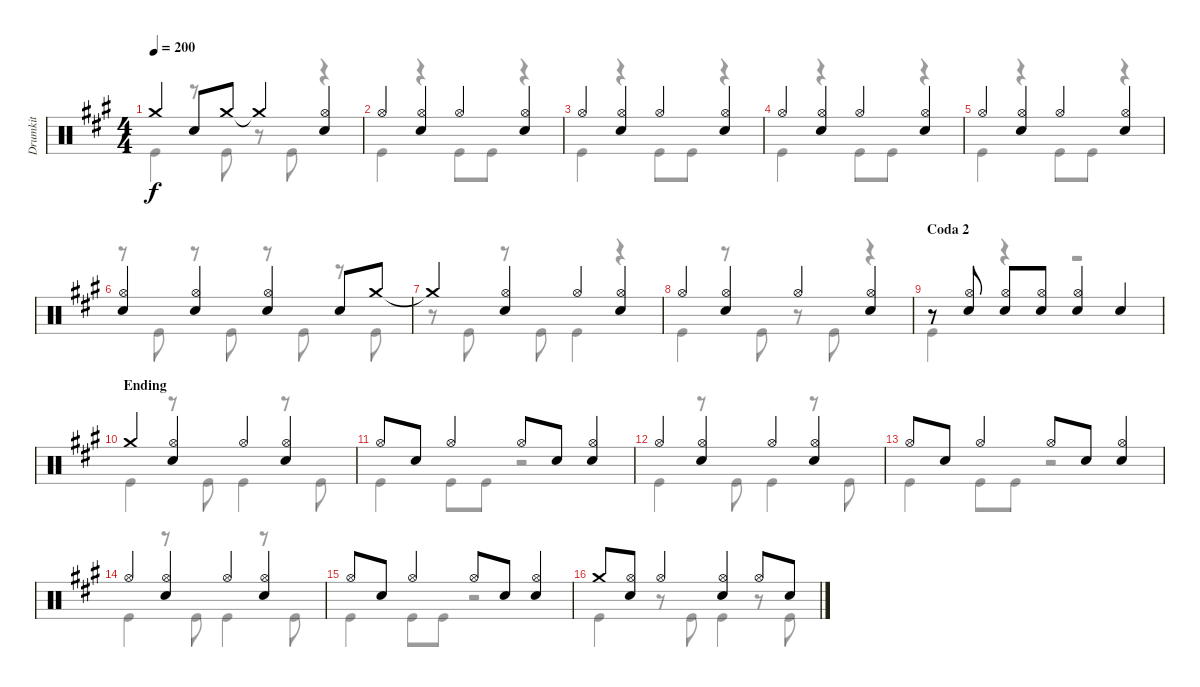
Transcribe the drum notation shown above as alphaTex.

\track ("Drumkit" "Drumkit") {instrument percussion}
\staff {score}
\articulation defaults
\voice
\ts (4 4)
\tempo 200
\clef neutral
\ks a "Crash medium (hit)".4{dy f} "Snare (hit) 2".8 "Crash medium (hit)".8 "Crash medium (hit)"{t}.4
("Hi-Hat (open)" "Snare (hit) 2").4 |
"Hi-Hat (open)".4 ("Hi-Hat (open)" "Snare (hit) 2").4 "Hi-Hat (open)".4 ("Hi-Hat (open)" "Snare (hit) 2").4 |
"Hi-Hat (open)".4 ("Hi-Hat (open)" "Snare (hit) 2").4 "Hi-Hat (open)".4 ("Hi-Hat (open)" "Snare (hit) 2").4 |
"Hi-Hat (open)".4 ("Hi-Hat (open)" "Snare (hit) 2").4 "Hi-Hat (open)".4 ("Hi-Hat (open)" "Snare (hit) 2").4 |
"Hi-Hat (open)".4 ("Hi-Hat (open)" "Snare (hit) 2").4 "Hi-Hat (open)".4 ("Hi-Hat (open)" "Snare (hit) 2").4 |
("Hi-Hat (open)" "Snare (hit) 2").4 ("Hi-Hat (open)" "Snare (hit) 2").4 ("Hi-Hat (open)" "Snare (hit) 2").4 "Snare (hit) 2".8 "Crash medium (hit)".8 |
"Crash medium (hit)"{t}.4 ("Hi-Hat (open)" "Snare (hit) 2").4 "Hi-Hat (open)".4 ("Hi-Hat (open)" "Snare (hit) 2").4 |
"Hi-Hat (open)".4 ("Hi-Hat (open)" "Snare (hit) 2").4 "Hi-Hat (open)".4 ("Hi-Hat (open)" "Snare (hit) 2").4 |
\section ("" "Coda 2")
r.8 ("Snare (hit) 2" "Hi-Hat (open)").8 ("Snare (hit) 2" "Hi-Hat (open)").8 ("Snare (hit) 2" "Hi-Hat (open)").8 ("Snare (hit) 2" "Hi-Hat (open)").4 "Snare (hit) 2".4 |
\section ("" "Ending")
"Crash medium (hit)".4 ("Hi-Hat (open)" "Snare (hit) 2").4 "Hi-Hat (open)".4 ("Hi-Hat (open)" "Snare (hit) 2").4 |
"Hi-Hat (open)".8 "Snare (hit) 2".8 "Hi-Hat (open)".4 "Hi-Hat (open)".8 "Snare (hit) 2".8 ("Snare (hit) 2" "Hi-Hat (open)").4 |
"Hi-Hat (open)".4 ("Hi-Hat (open)" "Snare (hit) 2").4 "Hi-Hat (open)".4 ("Hi-Hat (open)" "Snare (hit) 2").4 |
"Hi-Hat (open)".8 "Snare (hit) 2".8 "Hi-Hat (open)".4 "Hi-Hat (open)".8 "Snare (hit) 2".8 ("Snare (hit) 2" "Hi-Hat (open)").4 |
"Hi-Hat (open)".4 ("Hi-Hat (open)" "Snare (hit) 2").4 "Hi-Hat (open)".4 ("Hi-Hat (open)" "Snare (hit) 2").4 |
"Hi-Hat (open)".8 "Snare (hit) 2".8 "Hi-Hat (open)".4 "Hi-Hat (open)".8 "Snare (hit) 2".8 ("Snare (hit) 2" "Hi-Hat (open)").4 |
"Crash medium (hit)".8 ("Hi-Hat (open)" "Snare (hit) 2").8 "Hi-Hat (open)".4 ("Hi-Hat (open)" "Snare (hit) 2").4 "Hi-Hat (open)".8 "Snare (hit) 2".8
\voice
\clef neutral
\ottava regular
\simile none
\ks a "Kick (hit)".4{dy f}
r.8 "Kick (hit)".8 r.8 "Kick (hit)".8 r.4 |
"Kick (hit)".4 r.4 "Kick (hit)".8 "Kick (hit)".8 r.4 |
"Kick (hit)".4 r.4 "Kick (hit)".8 "Kick (hit)".8 r.4 |
"Kick (hit)".4 r.4 "Kick (hit)".8 "Kick (hit)".8 r.4 |
"Kick (hit)".4 r.4 "Kick (hit)".8 "Kick (hit)".8 r.4 |
r.8 "Kick (hit)".8 r.8 "Kick (hit)".8 r.8 "Kick (hit)".8 r.8 "Kick (hit)".8 |
r.8 "Kick (hit)".8 r.8 "Kick (hit)".8 "Kick (hit)".4 r.4 |
"Kick (hit)".4 r.8 "Kick (hit)".8 r.8 "Kick (hit)".8 r.4 |
"Kick (hit)".4 r.4 r.2 |
"Kick (hit)".4 r.8 "Kick (hit)".8 "Kick (hit)".4 r.8 "Kick (hit)".8 |
"Kick (hit)".4 "Kick (hit)".8 "Kick (hit)".8 r.2 |
"Kick (hit)".4 r.8 "Kick (hit)".8 "Kick (hit)".4 r.8 "Kick (hit)".8 |
"Kick (hit)".4 "Kick (hit)".8 "Kick (hit)".8 r.2 |
"Kick (hit)".4 r.8 "Kick (hit)".8 "Kick (hit)".4 r.8 "Kick (hit)".8 |
"Kick (hit)".4 "Kick (hit)".8 "Kick (hit)".8 r.2 |
"Kick (hit)".4 r.8 "Kick (hit)".8 "Kick (hit)".4 r.8 "Kick (hit)".8
